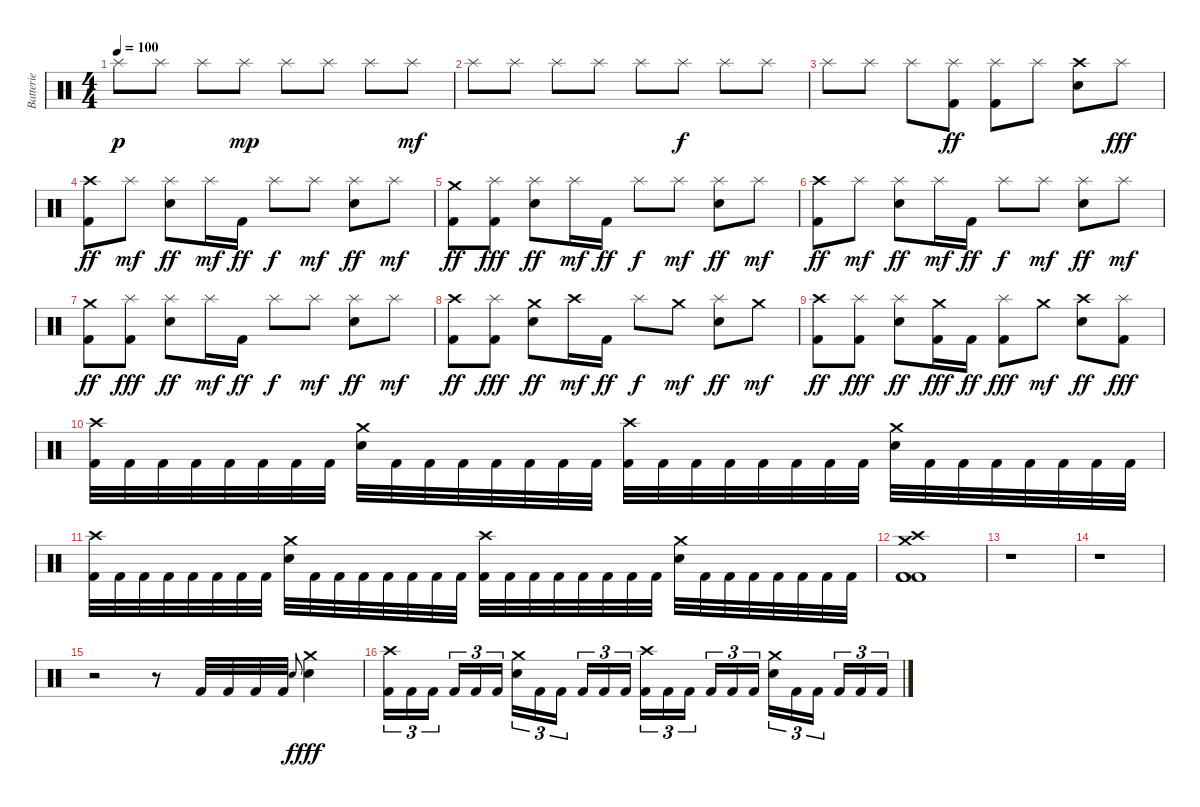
\track ("Batterie" "Batterie") {instrument percussion}
\staff {score}
\articulation defaults
\ts (4 4)
\tempo 100
\clef neutral
\ks c "Splash (hit)".8{dy p} "Splash (hit)".8 "Splash (hit)".8 "Splash (hit)".8{dy mp} "Splash (hit)".8 "Splash (hit)".8 "Splash (hit)".8 "Splash (hit)".8{dy mf}
|
"Splash (hit)".8 "Splash (hit)".8 "Splash (hit)".8 "Splash (hit)".8 "Splash (hit)".8 "Splash (hit)".8{dy f} "Splash (hit)".8 "Splash (hit)".8 |
"Splash (hit)".8 "Splash (hit)".8 "Splash (hit)".8 ("Splash (hit)" "Kick (hit) 2").8{dy ff} ("Splash (hit)" "Kick (hit) 2").8 "Splash (hit)".8 ("Crash high (hit)" "Electric Snare (hit)").8 "Splash (hit)".8{dy fff} |
("Crash high (hit)" "Kick (hit) 2").8{dy ff} "Splash (hit)".8{dy mf} ("Splash (hit)" "Electric Snare (hit)").8{dy ff} "Splash (hit)".16{dy mf} "Kick (hit) 2".16{dy ff} "Splash (hit)".8{dy f} "Splash (hit)".8{dy mf} ("Splash (hit)" "Electric Snare (hit)").8{dy ff} "Splash (hit)".8{dy mf} |
("Crash medium (hit)" "Kick (hit) 2").8{dy ff} ("Splash (hit)" "Kick (hit) 2").8{dy fff} ("Splash (hit)" "Electric Snare (hit)").8{dy ff} "Splash (hit)".16{dy mf} "Kick (hit) 2".16{dy ff} "Splash (hit)".8{dy f} "Splash (hit)".8{dy mf} ("Splash (hit)" "Electric Snare (hit)").8{dy ff} "Splash (hit)".8{dy mf} |
("Crash high (hit)" "Kick (hit) 2").8{dy ff} "Splash (hit)".8{dy mf} ("Splash (hit)" "Electric Snare (hit)").8{dy ff} "Splash (hit)".16{dy mf} "Kick (hit) 2".16{dy ff} "Splash (hit)".8{dy f} "Splash (hit)".8{dy mf} ("Splash (hit)" "Electric Snare (hit)").8{dy ff} "Splash (hit)".8{dy mf} |
("Crash medium (hit)" "Kick (hit) 2").8{dy ff} ("Splash (hit)" "Kick (hit) 2").8{dy fff} ("Splash (hit)" "Electric Snare (hit)").8{dy ff} "Splash (hit)".16{dy mf} "Kick (hit) 2".16{dy ff} "Splash (hit)".8{dy f} "Splash (hit)".8{dy mf} ("Splash (hit)" "Electric Snare (hit)").8{dy ff} "Splash (hit)".8{dy mf} |
("Crash high (hit)" "Kick (hit) 2").8{dy ff} ("Splash (hit)" "Kick (hit) 2").8{dy fff} ("Crash medium (hit)" "Electric Snare (hit)").8{dy ff} "Crash high (hit)".16{dy mf} "Kick (hit) 2".16{dy ff} "Splash (hit)".8{dy f} "Crash medium (hit)".8{dy mf} ("Splash (hit)" "Electric Snare (hit)").8{dy ff} "Crash medium (hit)".8{dy mf} |
("Crash high (hit)" "Kick (hit) 2").8{dy ff} ("Splash (hit)" "Kick (hit) 2").8{dy fff} ("Splash (hit)" "Electric Snare (hit)").8{dy ff} ("Crash medium (hit)" "Kick (hit) 2").16{dy fff} "Kick (hit) 2".16{dy ff} ("Splash (hit)" "Kick (hit) 2").8{dy fff} "Crash medium (hit)".8{dy mf} ("Crash high (hit)" "Electric Snare (hit)").8{dy ff} ("Splash (hit)" "Kick (hit) 2").8{dy fff} |
("Crash high (hit)" "Kick (hit) 2").32 "Kick (hit) 2".32 "Kick (hit) 2".32 "Kick (hit) 2".32 "Kick (hit) 2".32 "Kick (hit) 2".32 "Kick (hit) 2".32 "Kick (hit) 2".32 ("Crash medium (hit)" "Electric Snare (hit)").32 "Kick (hit) 2".32 "Kick (hit) 2".32 "Kick (hit) 2".32 "Kick (hit) 2".32 "Kick (hit) 2".32 "Kick (hit) 2".32 "Kick (hit) 2".32 ("Crash high (hit)" "Kick (hit) 2").32 "Kick (hit) 2".32 "Kick (hit) 2".32 "Kick (hit) 2".32 "Kick (hit) 2".32 "Kick (hit) 2".32 "Kick (hit) 2".32 "Kick (hit) 2".32 ("Crash medium (hit)" "Electric Snare (hit)").32 "Kick (hit) 2".32 "Kick (hit) 2".32 "Kick (hit) 2".32 "Kick (hit) 2".32 "Kick (hit) 2".32 "Kick (hit) 2".32 "Kick (hit) 2".32 |
("Crash high (hit)" "Kick (hit) 2").32 "Kick (hit) 2".32 "Kick (hit) 2".32 "Kick (hit) 2".32 "Kick (hit) 2".32 "Kick (hit) 2".32 "Kick (hit) 2".32 "Kick (hit) 2".32 ("Crash medium (hit)" "Electric Snare (hit)").32 "Kick (hit) 2".32 "Kick (hit) 2".32 "Kick (hit) 2".32 "Kick (hit) 2".32 "Kick (hit) 2".32 "Kick (hit) 2".32 "Kick (hit) 2".32 ("Crash high (hit)" "Kick (hit) 2").32 "Kick (hit) 2".32 "Kick (hit) 2".32 "Kick (hit) 2".32 "Kick (hit) 2".32 "Kick (hit) 2".32 "Kick (hit) 2".32 "Kick (hit) 2".32 ("Crash medium (hit)" "Electric Snare (hit)").32 "Kick (hit) 2".32 "Kick (hit) 2".32 "Kick (hit) 2".32 "Kick (hit) 2".32 "Kick (hit) 2".32 "Kick (hit) 2".32 "Kick (hit) 2".32 |
("Crash high (hit)" "Crash medium (hit)" "Kick (hit) 2" "Kick (hit) 2" "Kick (hit) 2" "Kick (hit) 2").1 |
r.1 |
r.1 |
r.2{volume 16} r.8 "Kick (hit) 2".32 "Kick (hit) 2".32 "Kick (hit) 2".32 "Kick (hit) 2".32 "Electric Snare (hit)".8{gr onbeat dy f} ("Crash medium (hit)" "Electric Snare (hit)").4{dy fff} |
("Crash high (hit)" "Kick (hit) 2").16{tu (3 2)} "Kick (hit) 2".16{tu (3 2)} "Kick (hit) 2".16{tu (3 2) beam splitsecondary} "Kick (hit) 2".16{tu (3 2)} "Kick (hit) 2".16{tu (3 2)} "Kick (hit) 2".16{tu (3 2)} ("Crash medium (hit)" "Electric Snare (hit)").16{tu (3 2)} "Kick (hit) 2".16{tu (3 2)} "Kick (hit) 2".16{tu (3 2) beam splitsecondary} "Kick (hit) 2".16{tu (3 2)} "Kick (hit) 2".16{tu (3 2)} "Kick (hit) 2".16{tu (3 2)} ("Crash high (hit)" "Kick (hit) 2").16{tu (3 2)} "Kick (hit) 2".16{tu (3 2)} "Kick (hit) 2".16{tu (3 2) beam splitsecondary} "Kick (hit) 2".16{tu (3 2)} "Kick (hit) 2".16{tu (3 2)} "Kick (hit) 2".16{tu (3 2)} ("Crash medium (hit)" "Electric Snare (hit)").16{tu (3 2)} "Kick (hit) 2".16{tu (3 2)} "Kick (hit) 2".16{tu (3 2) beam splitsecondary} "Kick (hit) 2".16{tu (3 2)} "Kick (hit) 2".16{tu (3 2)} "Kick (hit) 2".16{tu (3 2)}
